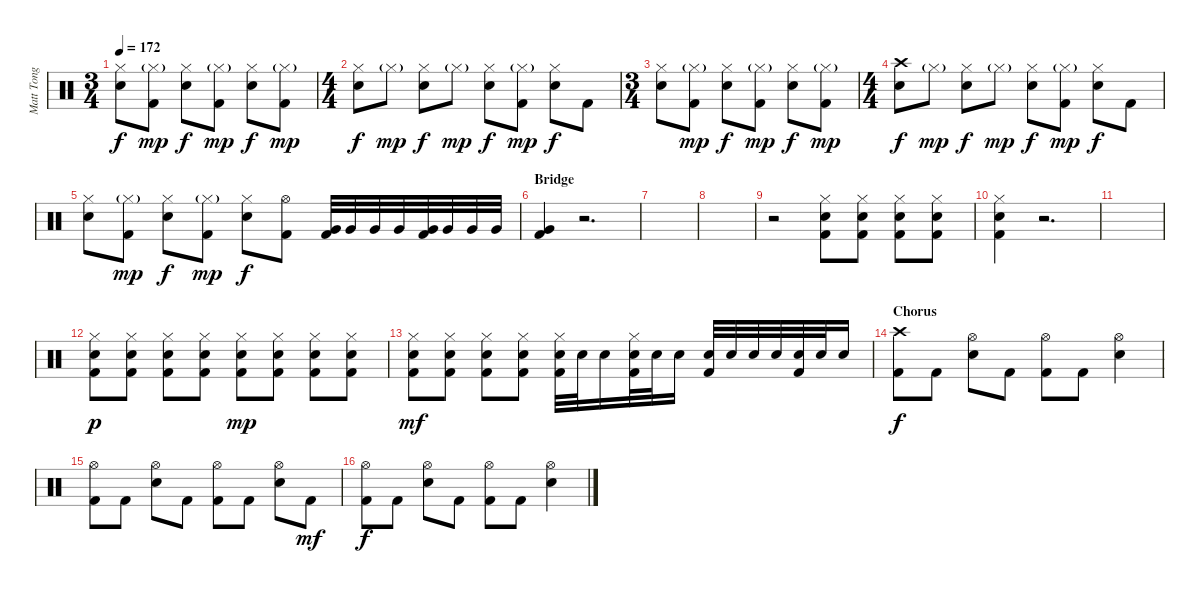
\track ("Matt Tong" "Matt Tong") {instrument percussion}
\staff {score}
\articulation defaults
\ts (3 4)
\tempo 172
\clef neutral
\ks c
("Hi-Hat (closed)" "Snare (hit) 2").8{dy f} ("Hi-Hat (closed)"{g} "Kick (hit) 2").8{dy mp} ("Hi-Hat (closed)" "Snare (hit) 2").8{dy f} ("Hi-Hat (closed)"{g} "Kick (hit) 2").8{dy mp} ("Hi-Hat (closed)" "Snare (hit) 2").8{dy f} ("Hi-Hat (closed)"{g} "Kick (hit) 2").8{dy mp} |
\ts (4 4)
("Hi-Hat (closed)" "Snare (hit) 2").8{dy f} "Hi-Hat (closed)"{g}.8{dy mp} ("Hi-Hat (closed)" "Snare (hit) 2").8{dy f} "Hi-Hat (closed)"{g}.8{dy mp} ("Hi-Hat (closed)" "Snare (hit) 2").8{dy f} ("Hi-Hat (closed)"{g} "Kick (hit) 2").8{dy mp} ("Hi-Hat (closed)" "Snare (hit) 2").8{dy f} "Kick (hit) 2".8 |
\ts (3 4)
("Hi-Hat (closed)" "Snare (hit) 2").8 ("Hi-Hat (closed)"{g} "Kick (hit) 2").8{dy mp} ("Hi-Hat (closed)" "Snare (hit) 2").8{dy f} ("Hi-Hat (closed)"{g} "Kick (hit) 2").8{dy mp} ("Hi-Hat (closed)" "Snare (hit) 2").8{dy f} ("Hi-Hat (closed)"{g} "Kick (hit) 2").8{dy mp} |
\ts (4 4)
("Crash high (hit)" "Snare (hit) 2").8{dy f} "Hi-Hat (closed)"{g}.8{dy mp} ("Hi-Hat (closed)" "Snare (hit) 2").8{dy f} "Hi-Hat (closed)"{g}.8{dy mp} ("Hi-Hat (closed)" "Snare (hit) 2").8{dy f} ("Hi-Hat (closed)"{g} "Kick (hit) 2").8{dy mp} ("Hi-Hat (closed)" "Snare (hit) 2").8{dy f} "Kick (hit) 2".8 |
("Hi-Hat (closed)" "Snare (hit) 2").8 ("Hi-Hat (closed)"{g} "Kick (hit) 2").8{dy mp} ("Hi-Hat (closed)" "Snare (hit) 2").8{dy f} ("Hi-Hat (closed)"{g} "Kick (hit) 2").8{dy mp} ("Hi-Hat (closed)" "Snare (hit) 2").8{dy f} ("Hi-Hat (open)" "Kick (hit) 2").8 ("Very Low Tom (hit)" "Kick (hit) 2").32 "Very Low Tom (hit)".32 "Very Low Tom (hit)".32 "Very Low Tom (hit)".32 ("Very Low Tom (hit)" "Kick (hit) 2").32 "Very Low Tom (hit)".32 "Very Low Tom (hit)".32 "Very Low Tom (hit)".32 |
\section ("" "Bridge")
("Very Low Tom (hit)" "Kick (hit) 2").4 r.2{d} |
|
|
r.2 ("Hi-Hat (closed)" "Snare (hit) 2" "Kick (hit) 2").8 ("Hi-Hat (closed)" "Snare (hit) 2" "Kick (hit) 2").8 ("Hi-Hat (closed)" "Snare (hit) 2" "Kick (hit) 2").8 ("Hi-Hat (closed)" "Snare (hit) 2" "Kick (hit) 2").8 |
("Hi-Hat (closed)" "Snare (hit) 2" "Kick (hit) 2").4 r.2{d} |
|
("Hi-Hat (closed)" "Snare (hit) 2" "Kick (hit) 2").8{dy p} ("Hi-Hat (closed)" "Snare (hit) 2" "Kick (hit) 2").8 ("Hi-Hat (closed)" "Snare (hit) 2" "Kick (hit) 2").8 ("Hi-Hat (closed)" "Snare (hit) 2" "Kick (hit) 2").8 ("Hi-Hat (closed)" "Snare (hit) 2" "Kick (hit) 2").8{dy mp} ("Hi-Hat (closed)" "Snare (hit) 2" "Kick (hit) 2").8 ("Hi-Hat (closed)" "Snare (hit) 2" "Kick (hit) 2").8 ("Hi-Hat (closed)" "Snare (hit) 2" "Kick (hit) 2").8 |
("Hi-Hat (closed)" "Snare (hit) 2" "Kick (hit) 2").8{dy mf} ("Hi-Hat (closed)" "Snare (hit) 2" "Kick (hit) 2").8 ("Hi-Hat (closed)" "Snare (hit) 2" "Kick (hit) 2").8 ("Hi-Hat (closed)" "Snare (hit) 2" "Kick (hit) 2").8 ("Hi-Hat (closed)" "Snare (hit) 2" "Kick (hit) 2").32 "Snare (hit) 2".32 "Snare (hit) 2".16 ("Hi-Hat (closed)" "Snare (hit) 2" "Kick (hit) 2").32 "Snare (hit) 2".32 "Snare (hit) 2".16 ("Snare (hit) 2" "Kick (hit) 2").32 "Snare (hit) 2".32 "Snare (hit) 2".32 "Snare (hit) 2".32 ("Snare (hit) 2" "Kick (hit) 2").32 "Snare (hit) 2".32 "Snare (hit) 2".16 |
\section ("" "Chorus")
("Crash high (hit)" "Kick (hit) 2").8{dy f} "Kick (hit) 2".8 ("Hi-Hat (open)" "Snare (hit) 2").8 "Kick (hit) 2".8 ("Hi-Hat (open)" "Kick (hit) 2").8 "Kick (hit) 2".8 ("Hi-Hat (open)" "Snare (hit) 2").4 |
("Hi-Hat (open)" "Kick (hit) 2").8 "Kick (hit) 2".8 ("Hi-Hat (open)" "Snare (hit) 2").8 "Kick (hit) 2".8 ("Hi-Hat (open)" "Kick (hit) 2").8 "Kick (hit) 2".8 ("Hi-Hat (open)" "Snare (hit) 2").8 "Kick (hit) 2".8{dy mf} |
("Hi-Hat (open)" "Kick (hit) 2").8{dy f} "Kick (hit) 2".8 ("Hi-Hat (open)" "Snare (hit) 2").8 "Kick (hit) 2".8 ("Hi-Hat (open)" "Kick (hit) 2").8 "Kick (hit) 2".8 ("Hi-Hat (open)" "Snare (hit) 2").4
